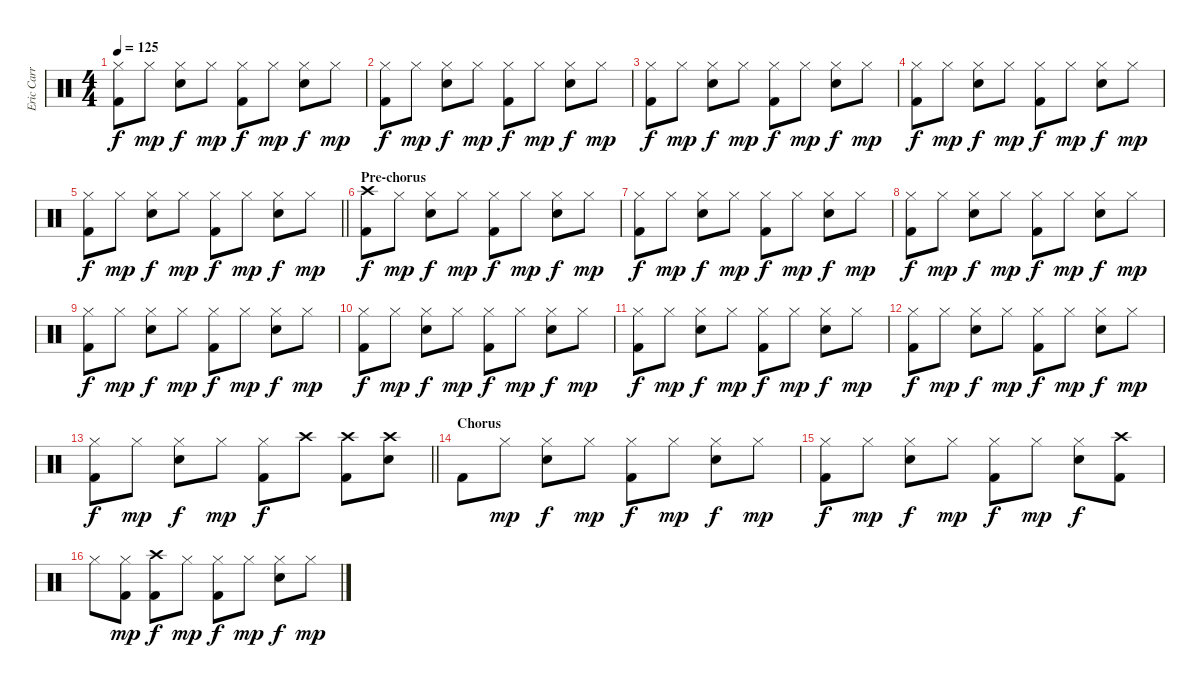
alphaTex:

\track ("Eric Carr" "Eric Carr") {instrument percussion}
\staff {score}
\articulation defaults
\ts (4 4)
\tempo 125
\clef neutral
\ks c
("Hi-Hat (closed)" "Kick (hit) 2").8{dy f} "Hi-Hat (closed)".8{dy mp} ("Hi-Hat (closed)" "Snare (hit) 2").8{dy f} "Hi-Hat (closed)".8{dy mp} ("Hi-Hat (closed)" "Kick (hit) 2").8{dy f} "Hi-Hat (closed)".8{dy mp} ("Hi-Hat (closed)" "Snare (hit) 2").8{dy f} "Hi-Hat (closed)".8{dy mp} |
("Hi-Hat (closed)" "Kick (hit) 2").8{dy f} "Hi-Hat (closed)".8{dy mp} ("Hi-Hat (closed)" "Snare (hit) 2").8{dy f} "Hi-Hat (closed)".8{dy mp} ("Hi-Hat (closed)" "Kick (hit) 2").8{dy f} "Hi-Hat (closed)".8{dy mp} ("Hi-Hat (closed)" "Snare (hit) 2").8{dy f} "Hi-Hat (closed)".8{dy mp} |
("Hi-Hat (closed)" "Kick (hit) 2").8{dy f} "Hi-Hat (closed)".8{dy mp} ("Hi-Hat (closed)" "Snare (hit) 2").8{dy f} "Hi-Hat (closed)".8{dy mp} ("Hi-Hat (closed)" "Kick (hit) 2").8{dy f} "Hi-Hat (closed)".8{dy mp} ("Hi-Hat (closed)" "Snare (hit) 2").8{dy f} "Hi-Hat (closed)".8{dy mp} |
("Hi-Hat (closed)" "Kick (hit) 2").8{dy f} "Hi-Hat (closed)".8{dy mp} ("Hi-Hat (closed)" "Snare (hit) 2").8{dy f} "Hi-Hat (closed)".8{dy mp} ("Hi-Hat (closed)" "Kick (hit) 2").8{dy f} "Hi-Hat (closed)".8{dy mp} ("Hi-Hat (closed)" "Snare (hit) 2").8{dy f} "Hi-Hat (closed)".8{dy mp} |
\barLineRight lightlight
("Hi-Hat (closed)" "Kick (hit) 2").8{dy f} "Hi-Hat (closed)".8{dy mp} ("Hi-Hat (closed)" "Snare (hit) 2").8{dy f} "Hi-Hat (closed)".8{dy mp} ("Hi-Hat (closed)" "Kick (hit) 2").8{dy f} "Hi-Hat (closed)".8{dy mp} ("Hi-Hat (closed)" "Snare (hit) 2").8{dy f} "Hi-Hat (closed)".8{dy mp} |
\section ("" "Pre-chorus")
("Crash high (hit)" "Kick (hit) 2").8{dy f} "Hi-Hat (closed)".8{dy mp} ("Hi-Hat (closed)" "Snare (hit) 2").8{dy f} "Hi-Hat (closed)".8{dy mp} ("Hi-Hat (closed)" "Kick (hit) 2").8{dy f} "Hi-Hat (closed)".8{dy mp} ("Hi-Hat (closed)" "Snare (hit) 2").8{dy f} "Hi-Hat (closed)".8{dy mp} |
("Hi-Hat (closed)" "Kick (hit) 2").8{dy f} "Hi-Hat (closed)".8{dy mp} ("Hi-Hat (closed)" "Snare (hit) 2").8{dy f} "Hi-Hat (closed)".8{dy mp} ("Hi-Hat (closed)" "Kick (hit) 2").8{dy f} "Hi-Hat (closed)".8{dy mp} ("Hi-Hat (closed)" "Snare (hit) 2").8{dy f} "Hi-Hat (closed)".8{dy mp} |
("Hi-Hat (closed)" "Kick (hit) 2").8{dy f} "Hi-Hat (closed)".8{dy mp} ("Hi-Hat (closed)" "Snare (hit) 2").8{dy f} "Hi-Hat (closed)".8{dy mp} ("Hi-Hat (closed)" "Kick (hit) 2").8{dy f} "Hi-Hat (closed)".8{dy mp} ("Hi-Hat (closed)" "Snare (hit) 2").8{dy f} "Hi-Hat (closed)".8{dy mp} |
("Hi-Hat (closed)" "Kick (hit) 2").8{dy f} "Hi-Hat (closed)".8{dy mp} ("Hi-Hat (closed)" "Snare (hit) 2").8{dy f} "Hi-Hat (closed)".8{dy mp} ("Hi-Hat (closed)" "Kick (hit) 2").8{dy f} "Hi-Hat (closed)".8{dy mp} ("Hi-Hat (closed)" "Snare (hit) 2").8{dy f} "Hi-Hat (closed)".8{dy mp} |
("Hi-Hat (closed)" "Kick (hit) 2").8{dy f} "Hi-Hat (closed)".8{dy mp} ("Hi-Hat (closed)" "Snare (hit) 2").8{dy f} "Hi-Hat (closed)".8{dy mp} ("Hi-Hat (closed)" "Kick (hit) 2").8{dy f} "Hi-Hat (closed)".8{dy mp} ("Hi-Hat (closed)" "Snare (hit) 2").8{dy f} "Hi-Hat (closed)".8{dy mp} |
("Hi-Hat (closed)" "Kick (hit) 2").8{dy f} "Hi-Hat (closed)".8{dy mp} ("Hi-Hat (closed)" "Snare (hit) 2").8{dy f} "Hi-Hat (closed)".8{dy mp} ("Hi-Hat (closed)" "Kick (hit) 2").8{dy f} "Hi-Hat (closed)".8{dy mp} ("Hi-Hat (closed)" "Snare (hit) 2").8{dy f} "Hi-Hat (closed)".8{dy mp} |
("Hi-Hat (closed)" "Kick (hit) 2").8{dy f} "Hi-Hat (closed)".8{dy mp} ("Hi-Hat (closed)" "Snare (hit) 2").8{dy f} "Hi-Hat (closed)".8{dy mp} ("Hi-Hat (closed)" "Kick (hit) 2").8{dy f} "Hi-Hat (closed)".8{dy mp} ("Hi-Hat (closed)" "Snare (hit) 2").8{dy f} "Hi-Hat (closed)".8{dy mp} |
\barLineRight lightlight
("Hi-Hat (closed)" "Kick (hit) 2").8{dy f} "Hi-Hat (closed)".8{dy mp} ("Hi-Hat (closed)" "Snare (hit) 2").8{dy f} "Hi-Hat (closed)".8{dy mp} ("Hi-Hat (closed)" "Kick (hit) 2").8{dy f} "Crash high (hit)".8 ("Crash high (hit)" "Kick (hit) 2").8 ("Crash high (hit)" "Snare (hit) 2").8 |
\section ("" "Chorus")
"Kick (hit) 2".8 "Hi-Hat (closed)".8{dy mp} ("Hi-Hat (closed)" "Snare (hit) 2").8{dy f} "Hi-Hat (closed)".8{dy mp} ("Hi-Hat (closed)" "Kick (hit) 2").8{dy f} "Hi-Hat (closed)".8{dy mp} ("Hi-Hat (closed)" "Snare (hit) 2").8{dy f} "Hi-Hat (closed)".8{dy mp} |
("Hi-Hat (closed)" "Kick (hit) 2").8{dy f} "Hi-Hat (closed)".8{dy mp} ("Hi-Hat (closed)" "Snare (hit) 2").8{dy f} "Hi-Hat (closed)".8{dy mp} ("Hi-Hat (closed)" "Kick (hit) 2").8{dy f} "Hi-Hat (closed)".8{dy mp} ("Hi-Hat (closed)" "Snare (hit) 2").8{dy f} ("Crash high (hit)" "Kick (hit) 2").8 |
"Hi-Hat (closed)".8 ("Hi-Hat (closed)" "Kick (hit) 2").8{dy mp} ("Crash high (hit)" "Kick (hit) 2").8{dy f} "Hi-Hat (closed)".8{dy mp} ("Hi-Hat (closed)" "Kick (hit) 2").8{dy f} "Hi-Hat (closed)".8{dy mp} ("Hi-Hat (closed)" "Snare (hit) 2").8{dy f} "Hi-Hat (closed)".8{dy mp}
